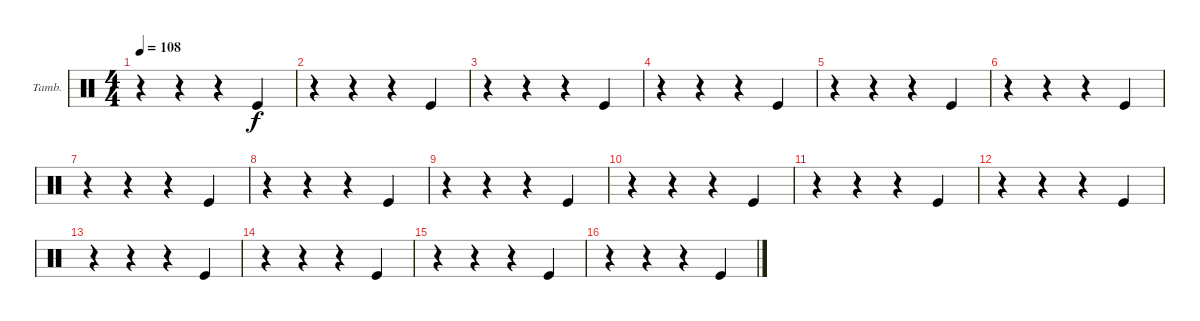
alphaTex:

\defaultSystemsLayout 4
\bracketExtendMode groupsimilarinstruments
\firstSystemTrackNameOrientation horizontal
\otherSystemsTrackNameOrientation horizontal
\track ("Tambourine" "Tamb.") {instrument percussion}
\staff {score}
\articulation defaults
\ts (4 4)
\tempo 108
\clef neutral
\ks c
r.4{dy f} r.4 r.4 "Kick (hit)".4 |
r.4 r.4 r.4 "Kick (hit)".4 |
r.4 r.4 r.4 "Kick (hit)".4 |
r.4 r.4 r.4 "Kick (hit)".4 |
r.4 r.4 r.4 "Kick (hit)".4 |
r.4 r.4 r.4 "Kick (hit)".4 |
r.4 r.4 r.4 "Kick (hit)".4 |
r.4 r.4 r.4 "Kick (hit)".4 |
r.4 r.4 r.4 "Kick (hit)".4 |
r.4 r.4 r.4 "Kick (hit)".4 |
r.4 r.4 r.4 "Kick (hit)".4 |
r.4 r.4 r.4 "Kick (hit)".4 |
r.4 r.4 r.4 "Kick (hit)".4 |
r.4 r.4 r.4 "Kick (hit)".4 |
r.4 r.4 r.4 "Kick (hit)".4 |
r.4 r.4 r.4 "Kick (hit)".4
